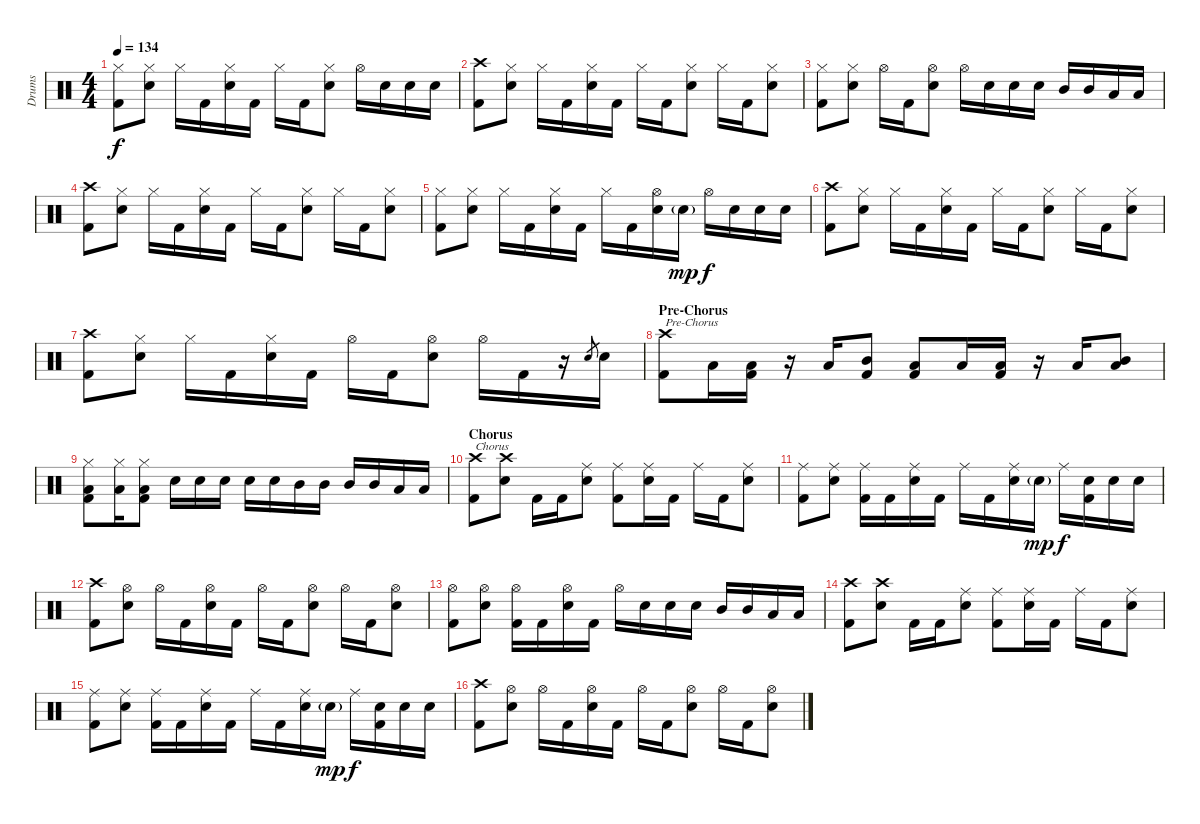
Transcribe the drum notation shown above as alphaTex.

\track ("Drums" "Drums") {instrument percussion}
\staff {score}
\articulation defaults
\ts (4 4)
\tempo 134
\clef neutral
\ks c
("Hi-Hat (closed)" "Kick (hit) 2").8{dy f} ("Hi-Hat (closed)" "Electric Snare (hit)").8 "Hi-Hat (closed)".16 "Kick (hit) 2".16 ("Hi-Hat (closed)" "Electric Snare (hit)").16 "Kick (hit) 2".16 "Hi-Hat (closed)".16 "Kick (hit) 2".16 ("Hi-Hat (closed)" "Electric Snare (hit)").8 "Hi-Hat (open)".16 "Electric Snare (hit)".16 "Electric Snare (hit)".16 "Electric Snare (hit)".16 |
("Crash high (hit)" "Kick (hit) 2").8 ("Hi-Hat (closed)" "Electric Snare (hit)").8 "Hi-Hat (closed)".16 "Kick (hit) 2".16 ("Hi-Hat (closed)" "Electric Snare (hit)").16 "Kick (hit) 2".16 "Hi-Hat (closed)".16 "Kick (hit) 2".16 ("Hi-Hat (closed)" "Electric Snare (hit)").8 "Hi-Hat (closed)".16 "Kick (hit) 2".16 ("Hi-Hat (closed)" "Electric Snare (hit)").8 |
("Hi-Hat (closed)" "Kick (hit) 2").8 ("Hi-Hat (closed)" "Electric Snare (hit)").8 "Hi-Hat (open)".16 "Kick (hit) 2".16 ("Hi-Hat (open)" "Electric Snare (hit)").8 "Hi-Hat (open)".16 "Electric Snare (hit)".16 "Electric Snare (hit)".16 "Electric Snare (hit)".16 "Mid Tom (hit)".16 "Mid Tom (hit)".16 "Low Floor Tom (hit)".16 "Low Floor Tom (hit)".16 |
("Crash high (hit)" "Kick (hit) 2").8 ("Hi-Hat (closed)" "Electric Snare (hit)").8 "Hi-Hat (closed)".16 "Kick (hit) 2".16 ("Hi-Hat (closed)" "Electric Snare (hit)").16 "Kick (hit) 2".16 "Hi-Hat (closed)".16 "Kick (hit) 2".16 ("Hi-Hat (closed)" "Electric Snare (hit)").8 "Hi-Hat (closed)".16 "Kick (hit) 2".16 ("Hi-Hat (closed)" "Electric Snare (hit)").8 |
("Hi-Hat (closed)" "Kick (hit) 2").8 ("Hi-Hat (closed)" "Electric Snare (hit)").8 "Hi-Hat (closed)".16 "Kick (hit) 2".16 ("Hi-Hat (closed)" "Electric Snare (hit)").16 "Kick (hit) 2".16 "Hi-Hat (closed)".16 "Kick (hit) 2".16 ("Hi-Hat (open)" "Electric Snare (hit)").16 "Electric Snare (hit)"{g}.16{dy mp} "Hi-Hat (open)".16{dy f} "Electric Snare (hit)".16 "Electric Snare (hit)".16 "Electric Snare (hit)".16 |
("Crash high (hit)" "Kick (hit) 2").8 ("Hi-Hat (closed)" "Electric Snare (hit)").8 "Hi-Hat (closed)".16 "Kick (hit) 2".16 ("Hi-Hat (closed)" "Electric Snare (hit)").16 "Kick (hit) 2".16 "Hi-Hat (closed)".16 "Kick (hit) 2".16 ("Hi-Hat (closed)" "Electric Snare (hit)").8 "Hi-Hat (closed)".16 "Kick (hit) 2".16 ("Hi-Hat (closed)" "Electric Snare (hit)").8 |
("Crash high (hit)" "Kick (hit) 2").8 ("Hi-Hat (closed)" "Electric Snare (hit)").8 "Hi-Hat (closed)".16 "Kick (hit) 2".16 ("Hi-Hat (closed)" "Electric Snare (hit)").16 "Kick (hit) 2".16 "Hi-Hat (open)".16 "Kick (hit) 2".16 ("Hi-Hat (open)" "Electric Snare (hit)").8 "Hi-Hat (open)".16 "Kick (hit) 2".16 r.16 "Electric Snare (hit)".8{gr} "Electric Snare (hit)".16 |
\section ("" "Pre-Chorus")
("Crash high (hit)" "Kick (hit) 2").8{txt "Pre-Chorus"} "Low Floor Tom (hit)".16 ("Low Floor Tom (hit)" "Kick (hit) 2").16 r.16 "Low Floor Tom (hit)".16 ("Mid Tom (hit)" "Kick (hit) 2").8 ("Low Floor Tom (hit)" "Kick (hit) 2").8 "Low Floor Tom (hit)".16 ("Low Floor Tom (hit)" "Kick (hit) 2").16 r.16 "Low Floor Tom (hit)".16 ("Mid Tom (hit)" "Low Floor Tom (hit)").8 |
("Hi-Hat (closed)" "Low Floor Tom (hit)" "Kick (hit) 2").8 ("Hi-Hat (closed)" "Low Floor Tom (hit)").16 ("Hi-Hat (closed)" "Low Floor Tom (hit)" "Kick (hit) 2").8 "Electric Snare (hit)".16 "Electric Snare (hit)".16 "Electric Snare (hit)".16 "Electric Snare (hit)".16 "Electric Snare (hit)".16 "Mid Tom (hit)".16 "Mid Tom (hit)".16 "Mid Tom (hit)".16 "Mid Tom (hit)".16 "Low Floor Tom (hit)".16 "Low Floor Tom (hit)".16 |
\section ("" "Chorus")
("Crash high (hit)" "Kick (hit) 2").8{txt "Chorus"} ("Crash high (hit)" "Electric Snare (hit)").8 "Kick (hit) 2".16 "Kick (hit) 2".16 ("Ride (middle)" "Electric Snare (hit)").8 ("Ride (middle)" "Kick (hit) 2").8 ("Ride (middle)" "Electric Snare (hit)").16 "Kick (hit) 2".16 "Ride (middle)".16 "Kick (hit) 2".16 ("Ride (middle)" "Electric Snare (hit)").8 |
("Ride (middle)" "Kick (hit) 2").8 ("Ride (middle)" "Electric Snare (hit)").8 ("Ride (middle)" "Kick (hit) 2").16 "Kick (hit) 2".16 ("Ride (middle)" "Electric Snare (hit)").16 "Kick (hit) 2".16 "Ride (middle)".16 "Kick (hit) 2".16 ("Ride (middle)" "Electric Snare (hit)").16 "Electric Snare (hit)"{g}.16{dy mp} "Ride (middle)".16{dy f} ("Electric Snare (hit)" "Kick (hit) 2").16 "Electric Snare (hit)".16 "Electric Snare (hit)".16 |
("Crash high (hit)" "Kick (hit) 2").8 ("Hi-Hat (open)" "Electric Snare (hit)").8 "Hi-Hat (open)".16 "Kick (hit) 2".16 ("Hi-Hat (open)" "Electric Snare (hit)").16 "Kick (hit) 2".16 "Hi-Hat (open)".16 "Kick (hit) 2".16 ("Hi-Hat (open)" "Electric Snare (hit)").8 "Hi-Hat (open)".16 "Kick (hit) 2".16 ("Hi-Hat (open)" "Electric Snare (hit)").8 |
("Hi-Hat (open)" "Kick (hit) 2").8 ("Hi-Hat (open)" "Electric Snare (hit)").8 ("Hi-Hat (open)" "Kick (hit) 2").16 "Kick (hit) 2".16 ("Hi-Hat (open)" "Electric Snare (hit)").16 "Kick (hit) 2".16 "Hi-Hat (open)".16 "Electric Snare (hit)".16 "Electric Snare (hit)".16 "Electric Snare (hit)".16 "Mid Tom (hit)".16 "Mid Tom (hit)".16 "Low Floor Tom (hit)".16 "Low Floor Tom (hit)".16 |
("Crash high (hit)" "Kick (hit) 2").8 ("Crash high (hit)" "Electric Snare (hit)").8 "Kick (hit) 2".16 "Kick (hit) 2".16 ("Ride (middle)" "Electric Snare (hit)").8 ("Ride (middle)" "Kick (hit) 2").8 ("Ride (middle)" "Electric Snare (hit)").16 "Kick (hit) 2".16 "Ride (middle)".16 "Kick (hit) 2".16 ("Ride (middle)" "Electric Snare (hit)").8 |
("Ride (middle)" "Kick (hit) 2").8 ("Ride (middle)" "Electric Snare (hit)").8 ("Ride (middle)" "Kick (hit) 2").16 "Kick (hit) 2".16 ("Ride (middle)" "Electric Snare (hit)").16 "Kick (hit) 2".16 "Ride (middle)".16 "Kick (hit) 2".16 ("Ride (middle)" "Electric Snare (hit)").16 "Electric Snare (hit)"{g}.16{dy mp} "Ride (middle)".16{dy f} ("Electric Snare (hit)" "Kick (hit) 2").16 "Electric Snare (hit)".16 "Electric Snare (hit)".16 |
("Crash high (hit)" "Kick (hit) 2").8 ("Hi-Hat (open)" "Electric Snare (hit)").8 "Hi-Hat (open)".16 "Kick (hit) 2".16 ("Hi-Hat (open)" "Electric Snare (hit)").16 "Kick (hit) 2".16 "Hi-Hat (open)".16 "Kick (hit) 2".16 ("Hi-Hat (open)" "Electric Snare (hit)").8 "Hi-Hat (open)".16 "Kick (hit) 2".16 ("Hi-Hat (open)" "Electric Snare (hit)").8
